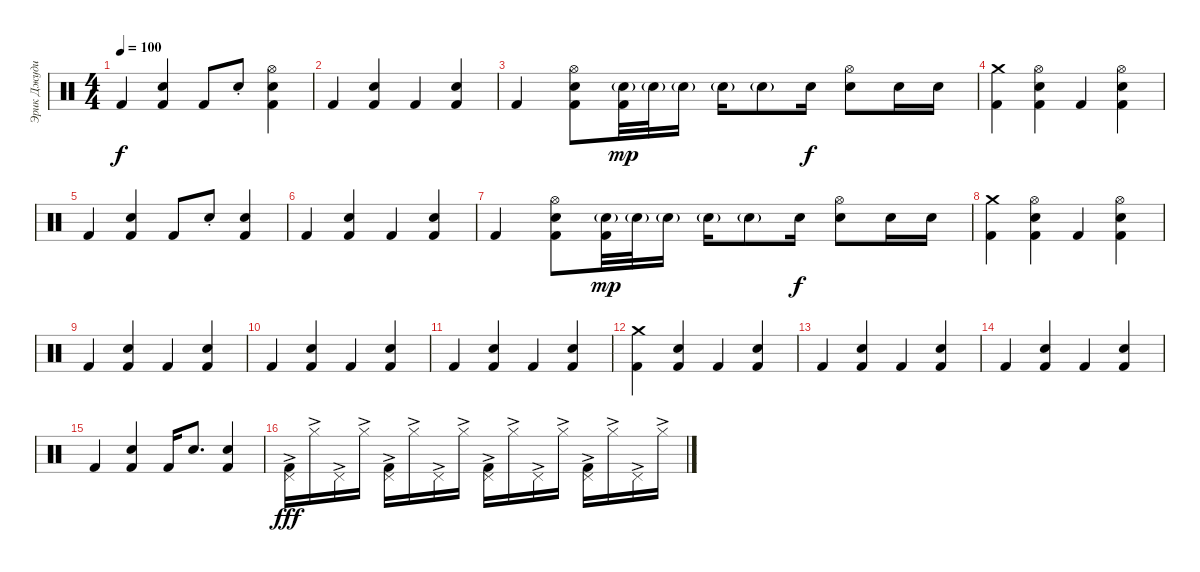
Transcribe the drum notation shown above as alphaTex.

\track ("Эрик Джуди" "Эрик Джуди") {instrument percussion}
\staff {score}
\articulation defaults
\ts (4 4)
\tempo 100
\clef neutral
\ks c "Kick (hit) 2".4{dy f}
("Electric Snare (hit)" "Kick (hit) 2").4 "Kick (hit) 2".8 "Electric Snare (hit)"{st}.8 ("Hi-Hat (open)" "Electric Snare (hit)" "Kick (hit) 2").4 |
"Kick (hit) 2".4 ("Electric Snare (hit)" "Kick (hit) 2").4 "Kick (hit) 2".4 ("Electric Snare (hit)" "Kick (hit) 2").4 |
"Kick (hit) 2".4 ("Hi-Hat (open)" "Electric Snare (hit)" "Kick (hit) 2").8 ("Electric Snare (hit)"{g} "Kick (hit) 2").32{dy mp} "Electric Snare (hit)"{g}.32 "Electric Snare (hit)"{g}.16 "Electric Snare (hit)"{g}.16 "Electric Snare (hit)"{g}.8 "Electric Snare (hit)".16{dy f} ("Hi-Hat (open)" "Electric Snare (hit)").8 "Electric Snare (hit)".16 "Electric Snare (hit)".16 |
("Crash medium (hit)" "Kick (hit) 2").4 ("Hi-Hat (open)" "Electric Snare (hit)" "Kick (hit) 2").4 "Kick (hit) 2".4 ("Hi-Hat (open)" "Electric Snare (hit)" "Kick (hit) 2").4 |
"Kick (hit) 2".4 ("Electric Snare (hit)" "Kick (hit) 2").4 "Kick (hit) 2".8 "Electric Snare (hit)"{st}.8 ("Electric Snare (hit)" "Kick (hit) 2").4 |
"Kick (hit) 2".4 ("Electric Snare (hit)" "Kick (hit) 2").4 "Kick (hit) 2".4 ("Electric Snare (hit)" "Kick (hit) 2").4 |
"Kick (hit) 2".4 ("Hi-Hat (open)" "Electric Snare (hit)" "Kick (hit) 2").8 ("Electric Snare (hit)"{g} "Kick (hit) 2").32{dy mp} "Electric Snare (hit)"{g}.32 "Electric Snare (hit)"{g}.16 "Electric Snare (hit)"{g}.16 "Electric Snare (hit)"{g}.8 "Electric Snare (hit)".16{dy f} ("Hi-Hat (open)" "Electric Snare (hit)").8 "Electric Snare (hit)".16 "Electric Snare (hit)".16 |
("Crash medium (hit)" "Kick (hit) 2").4 ("Hi-Hat (open)" "Electric Snare (hit)" "Kick (hit) 2").4 "Kick (hit) 2".4 ("Hi-Hat (open)" "Electric Snare (hit)" "Kick (hit) 2").4 |
"Kick (hit) 2".4 ("Electric Snare (hit)" "Kick (hit) 2").4 "Kick (hit) 2".4 ("Electric Snare (hit)" "Kick (hit) 2").4 |
"Kick (hit) 2".4 ("Electric Snare (hit)" "Kick (hit) 2").4 "Kick (hit) 2".4 ("Electric Snare (hit)" "Kick (hit) 2").4 |
"Kick (hit) 2".4 ("Electric Snare (hit)" "Kick (hit) 2").4 "Kick (hit) 2".4 ("Electric Snare (hit)" "Kick (hit) 2").4 |
("Crash medium (hit)" "Kick (hit) 2").4 ("Electric Snare (hit)" "Kick (hit) 2").4 "Kick (hit) 2".4 ("Electric Snare (hit)" "Kick (hit) 2").4 |
"Kick (hit) 2".4 ("Electric Snare (hit)" "Kick (hit) 2").4 "Kick (hit) 2".4 ("Electric Snare (hit)" "Kick (hit) 2").4 |
"Kick (hit) 2".4 ("Electric Snare (hit)" "Kick (hit) 2").4 "Kick (hit) 2".4 ("Electric Snare (hit)" "Kick (hit) 2").4 |
"Kick (hit) 2".4 ("Electric Snare (hit)" "Kick (hit) 2").4 "Kick (hit) 2".16 "Electric Snare (hit)".8{d} ("Electric Snare (hit)" "Kick (hit) 2").4 |
("Pedal Hi-Hat (hit)"{ac} "Kick (hit) 2"{ac}).16{dy fff} "Hi-Hat (closed)"{ac}.16 "Pedal Hi-Hat (hit)"{ac}.16 "Hi-Hat (closed)"{ac}.16 ("Pedal Hi-Hat (hit)"{ac} "Kick (hit) 2"{ac}).16 "Hi-Hat (closed)"{ac}.16 "Pedal Hi-Hat (hit)"{ac}.16 "Hi-Hat (closed)"{ac}.16 ("Pedal Hi-Hat (hit)"{ac} "Kick (hit) 2"{ac}).16 "Hi-Hat (closed)"{ac}.16 "Pedal Hi-Hat (hit)"{ac}.16 "Hi-Hat (closed)"{ac}.16 ("Pedal Hi-Hat (hit)"{ac} "Kick (hit) 2"{ac}).16 "Hi-Hat (closed)"{ac}.16 "Pedal Hi-Hat (hit)"{ac}.16 "Hi-Hat (closed)"{ac}.16
